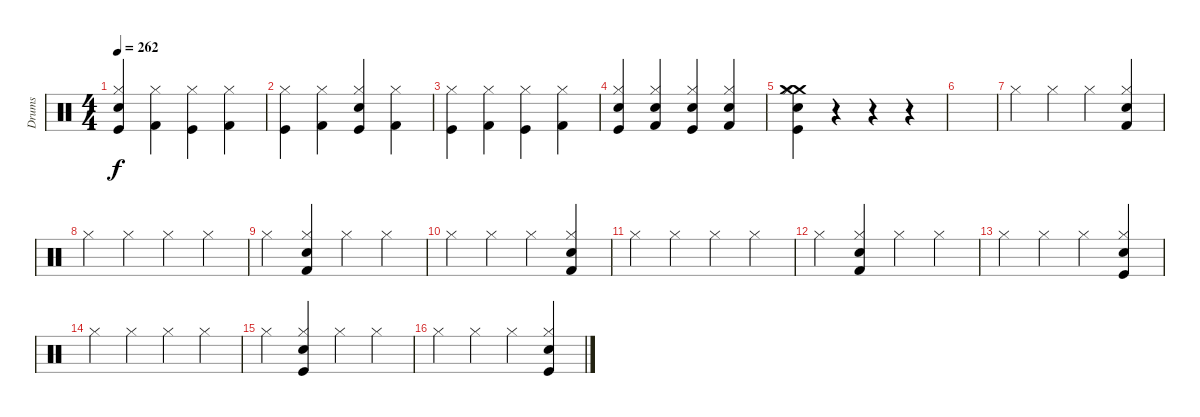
\track ("Drums" "Drums") {instrument percussion}
\staff {score}
\articulation defaults
\ts (4 4)
\tempo 262
\clef neutral
\ks c
("Electric Snare (hit)" "Hi-Hat (closed)" "Kick (hit)").4{dy f} ("Hi-Hat (closed)" "Kick (hit) 2").4 ("Hi-Hat (closed)" "Kick (hit)").4 ("Hi-Hat (closed)" "Kick (hit) 2").4 |
("Hi-Hat (closed)" "Kick (hit)").4 ("Hi-Hat (closed)" "Kick (hit) 2").4 ("Electric Snare (hit)" "Hi-Hat (closed)" "Kick (hit)").4 ("Hi-Hat (closed)" "Kick (hit) 2").4 |
("Hi-Hat (closed)" "Kick (hit)").4 ("Hi-Hat (closed)" "Kick (hit) 2").4 ("Hi-Hat (closed)" "Kick (hit)").4 ("Hi-Hat (closed)" "Kick (hit) 2").4 |
("Electric Snare (hit)" "Hi-Hat (closed)" "Kick (hit)").4 ("Electric Snare (hit)" "Hi-Hat (closed)" "Kick (hit) 2").4 ("Electric Snare (hit)" "Hi-Hat (closed)" "Kick (hit)").4 ("Electric Snare (hit)" "Hi-Hat (closed)" "Kick (hit) 2").4 |
("Crash medium (hit)" "Crash medium (hit)" "Electric Snare (hit)" "Hi-Hat (closed)" "Kick (hit)").4 r.4 r.4 r.4 |
|
"Hi-Hat (closed)".4 "Hi-Hat (closed)".4 "Hi-Hat (closed)".4 ("Electric Snare (hit)" "Hi-Hat (closed)" "Kick (hit) 2").4 |
"Hi-Hat (closed)".4 "Hi-Hat (closed)".4 "Hi-Hat (closed)".4 "Hi-Hat (closed)".4 |
"Hi-Hat (closed)".4 ("Electric Snare (hit)" "Hi-Hat (closed)" "Kick (hit) 2").4 "Hi-Hat (closed)".4 "Hi-Hat (closed)".4 |
"Hi-Hat (closed)".4 "Hi-Hat (closed)".4 "Hi-Hat (closed)".4 ("Electric Snare (hit)" "Hi-Hat (closed)" "Kick (hit) 2").4 |
"Hi-Hat (closed)".4 "Hi-Hat (closed)".4 "Hi-Hat (closed)".4 "Hi-Hat (closed)".4 |
"Hi-Hat (closed)".4 ("Electric Snare (hit)" "Hi-Hat (closed)" "Kick (hit) 2").4 "Hi-Hat (closed)".4 "Hi-Hat (closed)".4 |
"Hi-Hat (closed)".4 "Hi-Hat (closed)".4 "Hi-Hat (closed)".4 ("Electric Snare (hit)" "Hi-Hat (closed)" "Kick (hit)").4 |
"Hi-Hat (closed)".4 "Hi-Hat (closed)".4 "Hi-Hat (closed)".4 "Hi-Hat (closed)".4 |
"Hi-Hat (closed)".4 ("Electric Snare (hit)" "Hi-Hat (closed)" "Kick (hit)").4 "Hi-Hat (closed)".4 "Hi-Hat (closed)".4 |
"Hi-Hat (closed)".4 "Hi-Hat (closed)".4 "Hi-Hat (closed)".4 ("Electric Snare (hit)" "Hi-Hat (closed)" "Kick (hit)").4
